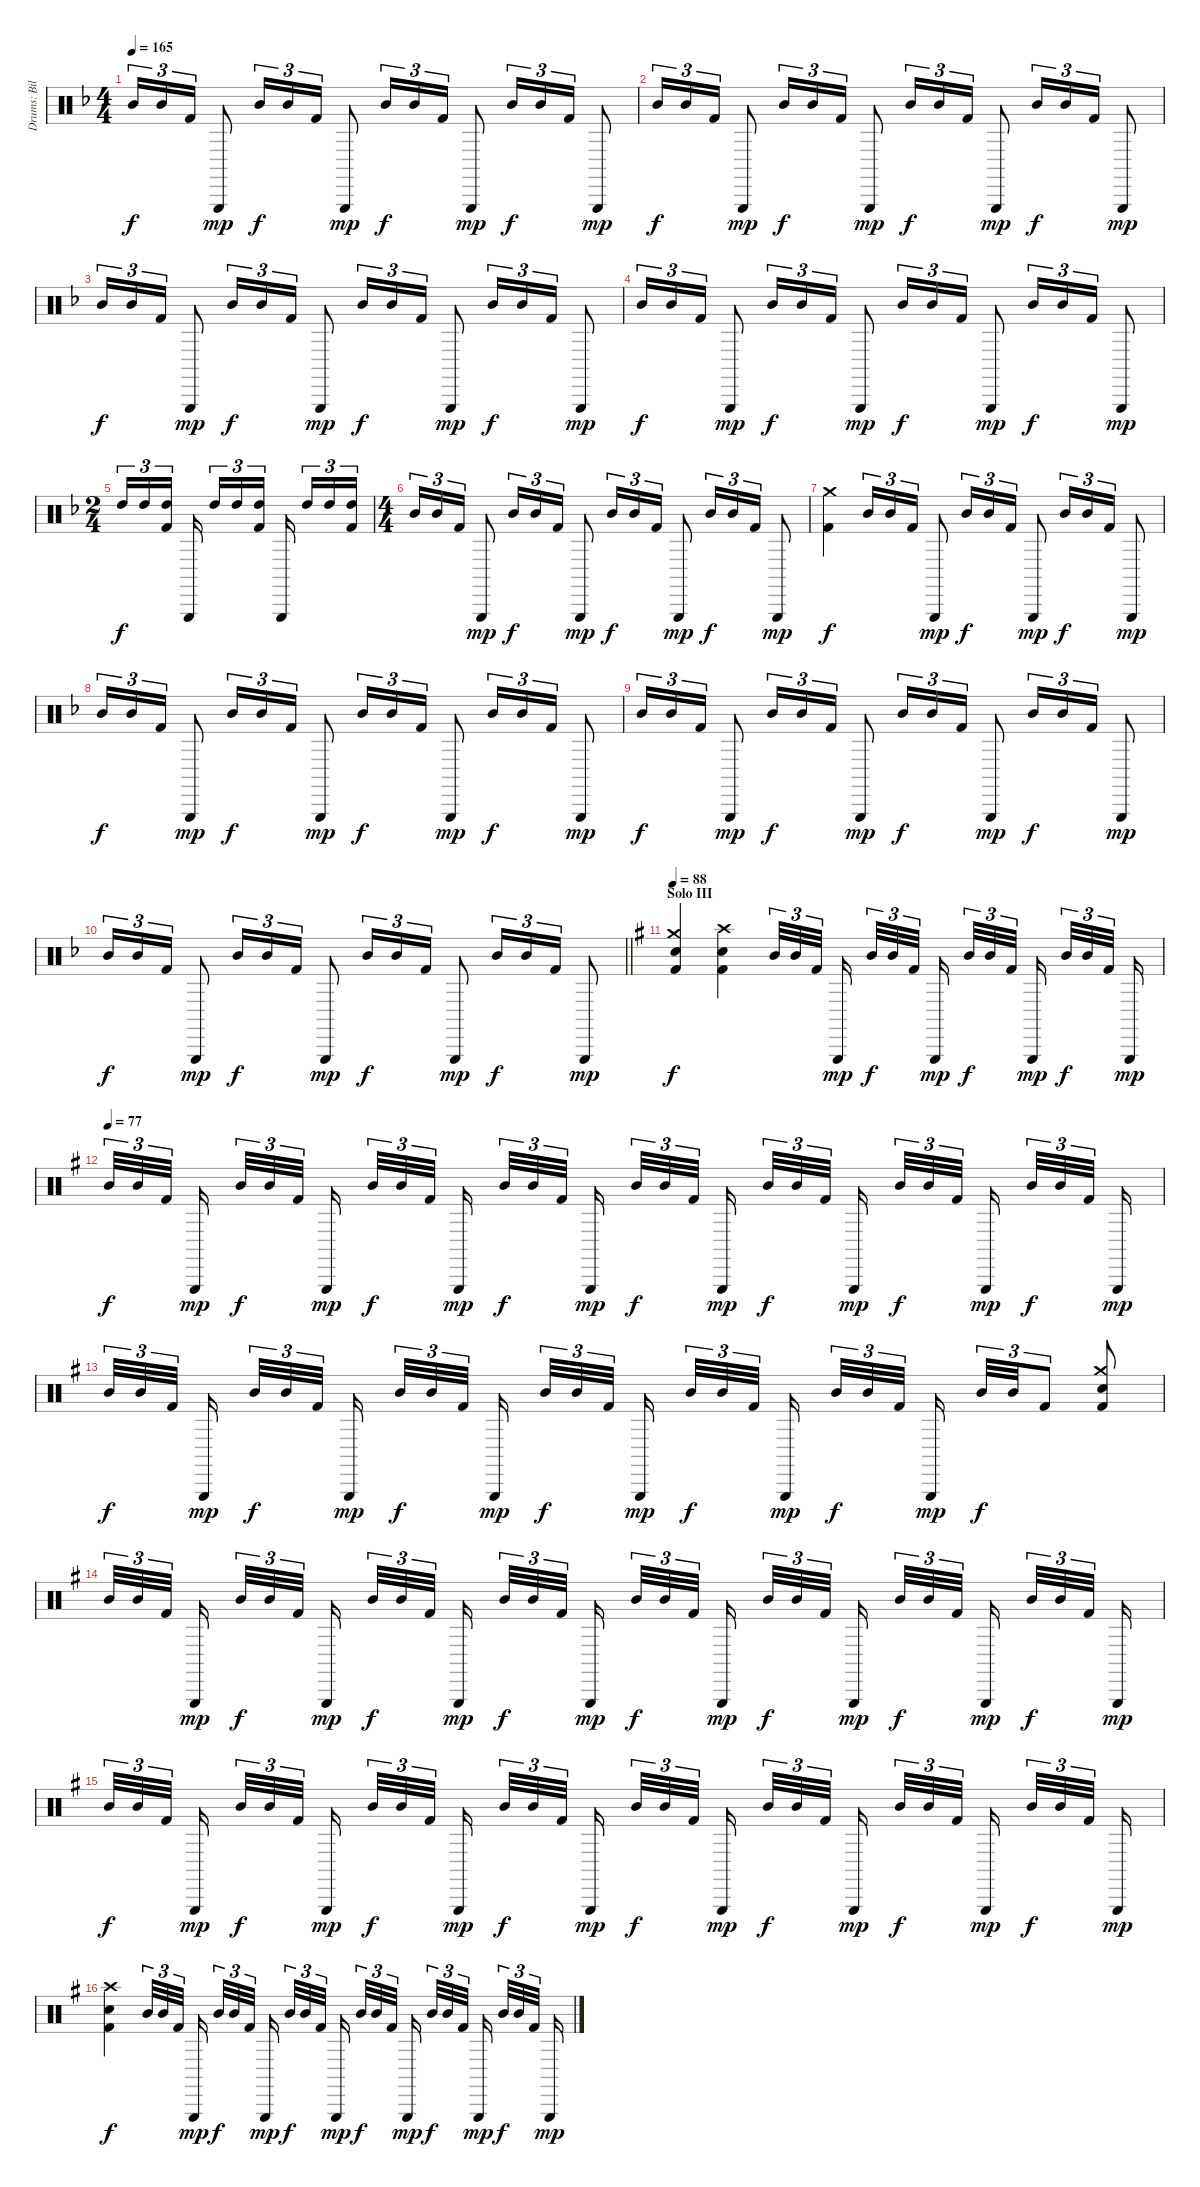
\track ("Drums: Bill" "Drums: Bil") {instrument percussion}
\staff {score}
\articulation defaults
\ts (4 4)
\tempo 165
\clef neutral
\ks f "Mid Tom (hit)".16{tu (3 2) dy f} "Mid Tom (hit)".16{tu (3 2)} "Kick (hit) 2".16{tu (3 2)} "Triangle (hit)".8{dy mp} "Mid Tom (hit)".16{tu (3 2) dy f} "Mid Tom (hit)".16{tu (3 2)} "Kick (hit) 2".16{tu (3 2)} "Triangle (hit)".8{dy mp} "Mid Tom (hit)".16{tu (3 2) dy f} "Mid Tom (hit)".16{tu (3 2)} "Kick (hit) 2".16{tu (3 2)} "Triangle (hit)".8{dy mp} "Mid Tom (hit)".16{tu (3 2) dy f} "Mid Tom (hit)".16{tu (3 2)} "Kick (hit) 2".16{tu (3 2)} "Triangle (hit)".8{dy mp}
|
"Mid Tom (hit)".16{tu (3 2) dy f} "Mid Tom (hit)".16{tu (3 2)} "Kick (hit) 2".16{tu (3 2)} "Triangle (hit)".8{dy mp} "Mid Tom (hit)".16{tu (3 2) dy f} "Mid Tom (hit)".16{tu (3 2)} "Kick (hit) 2".16{tu (3 2)} "Triangle (hit)".8{dy mp} "Mid Tom (hit)".16{tu (3 2) dy f} "Mid Tom (hit)".16{tu (3 2)} "Kick (hit) 2".16{tu (3 2)} "Triangle (hit)".8{dy mp} "Mid Tom (hit)".16{tu (3 2) dy f} "Mid Tom (hit)".16{tu (3 2)} "Kick (hit) 2".16{tu (3 2)} "Triangle (hit)".8{dy mp} |
"Mid Tom (hit)".16{tu (3 2) dy f} "Mid Tom (hit)".16{tu (3 2)} "Kick (hit) 2".16{tu (3 2)} "Triangle (hit)".8{dy mp} "Mid Tom (hit)".16{tu (3 2) dy f} "Mid Tom (hit)".16{tu (3 2)} "Kick (hit) 2".16{tu (3 2)} "Triangle (hit)".8{dy mp} "Mid Tom (hit)".16{tu (3 2) dy f} "Mid Tom (hit)".16{tu (3 2)} "Kick (hit) 2".16{tu (3 2)} "Triangle (hit)".8{dy mp} "Mid Tom (hit)".16{tu (3 2) dy f} "Mid Tom (hit)".16{tu (3 2)} "Kick (hit) 2".16{tu (3 2)} "Triangle (hit)".8{dy mp} |
"Mid Tom (hit)".16{tu (3 2) dy f} "Mid Tom (hit)".16{tu (3 2)} "Kick (hit) 2".16{tu (3 2)} "Triangle (hit)".8{dy mp} "Mid Tom (hit)".16{tu (3 2) dy f} "Mid Tom (hit)".16{tu (3 2)} "Kick (hit) 2".16{tu (3 2)} "Triangle (hit)".8{dy mp} "Mid Tom (hit)".16{tu (3 2) dy f} "Mid Tom (hit)".16{tu (3 2)} "Kick (hit) 2".16{tu (3 2)} "Triangle (hit)".8{dy mp} "Mid Tom (hit)".16{tu (3 2) dy f} "Mid Tom (hit)".16{tu (3 2)} "Kick (hit) 2".16{tu (3 2)} "Triangle (hit)".8{dy mp} |
\ts (2 4)
"High Tom (hit)".16{tu (3 2) dy f} "High Tom (hit)".16{tu (3 2)} ("High Tom (hit)" "Kick (hit) 2").16{tu (3 2) beam splitsecondary} "Triangle (hit)".16{beam splitsecondary} "High Tom (hit)".16{tu (3 2)} "High Tom (hit)".16{tu (3 2)} ("High Tom (hit)" "Kick (hit) 2").16{tu (3 2) beam splitsecondary} "Triangle (hit)".16{beam splitsecondary} "High Tom (hit)".16{tu (3 2)} "High Tom (hit)".16{tu (3 2)} ("High Tom (hit)" "Kick (hit) 2").16{tu (3 2)} |
\ts (4 4)
"Mid Tom (hit)".16{tu (3 2)} "Mid Tom (hit)".16{tu (3 2)} "Kick (hit) 2".16{tu (3 2)} "Triangle (hit)".8{dy mp} "Mid Tom (hit)".16{tu (3 2) dy f} "Mid Tom (hit)".16{tu (3 2)} "Kick (hit) 2".16{tu (3 2)} "Triangle (hit)".8{dy mp} "Mid Tom (hit)".16{tu (3 2) dy f} "Mid Tom (hit)".16{tu (3 2)} "Kick (hit) 2".16{tu (3 2)} "Triangle (hit)".8{dy mp} "Mid Tom (hit)".16{tu (3 2) dy f} "Mid Tom (hit)".16{tu (3 2)} "Kick (hit) 2".16{tu (3 2)} "Triangle (hit)".8{dy mp} |
("Crash medium (hit)" "Kick (hit) 2").4{dy f} "Mid Tom (hit)".16{tu (3 2)} "Mid Tom (hit)".16{tu (3 2)} "Kick (hit) 2".16{tu (3 2)} "Triangle (hit)".8{dy mp} "Mid Tom (hit)".16{tu (3 2) dy f} "Mid Tom (hit)".16{tu (3 2)} "Kick (hit) 2".16{tu (3 2)} "Triangle (hit)".8{dy mp} "Mid Tom (hit)".16{tu (3 2) dy f} "Mid Tom (hit)".16{tu (3 2)} "Kick (hit) 2".16{tu (3 2)} "Triangle (hit)".8{dy mp} |
"Mid Tom (hit)".16{tu (3 2) dy f} "Mid Tom (hit)".16{tu (3 2)} "Kick (hit) 2".16{tu (3 2)} "Triangle (hit)".8{dy mp} "Mid Tom (hit)".16{tu (3 2) dy f} "Mid Tom (hit)".16{tu (3 2)} "Kick (hit) 2".16{tu (3 2)} "Triangle (hit)".8{dy mp} "Mid Tom (hit)".16{tu (3 2) dy f} "Mid Tom (hit)".16{tu (3 2)} "Kick (hit) 2".16{tu (3 2)} "Triangle (hit)".8{dy mp} "Mid Tom (hit)".16{tu (3 2) dy f} "Mid Tom (hit)".16{tu (3 2)} "Kick (hit) 2".16{tu (3 2)} "Triangle (hit)".8{dy mp} |
"Mid Tom (hit)".16{tu (3 2) dy f} "Mid Tom (hit)".16{tu (3 2)} "Kick (hit) 2".16{tu (3 2)} "Triangle (hit)".8{dy mp} "Mid Tom (hit)".16{tu (3 2) dy f} "Mid Tom (hit)".16{tu (3 2)} "Kick (hit) 2".16{tu (3 2)} "Triangle (hit)".8{dy mp} "Mid Tom (hit)".16{tu (3 2) dy f} "Mid Tom (hit)".16{tu (3 2)} "Kick (hit) 2".16{tu (3 2)} "Triangle (hit)".8{dy mp} "Mid Tom (hit)".16{tu (3 2) dy f} "Mid Tom (hit)".16{tu (3 2)} "Kick (hit) 2".16{tu (3 2)} "Triangle (hit)".8{dy mp} |
\barLineRight lightlight "Mid Tom (hit)".16{tu (3 2) dy f} "Mid Tom (hit)".16{tu (3 2)} "Kick (hit) 2".16{tu (3 2)} "Triangle (hit)".8{dy mp} "Mid Tom (hit)".16{tu (3 2) dy f} "Mid Tom (hit)".16{tu (3 2)} "Kick (hit) 2".16{tu (3 2)} "Triangle (hit)".8{dy mp} "Mid Tom (hit)".16{tu (3 2) dy f} "Mid Tom (hit)".16{tu (3 2)} "Kick (hit) 2".16{tu (3 2)} "Triangle (hit)".8{dy mp} "Mid Tom (hit)".16{tu (3 2) dy f} "Mid Tom (hit)".16{tu (3 2)} "Kick (hit) 2".16{tu (3 2)} "Triangle (hit)".8{dy mp}
|
\section ("" "Solo III")
\tempo 88
\ks g
("Crash medium (hit)" "Snare (hit) 2" "Kick (hit) 2").4{dy f} ("Crash high (hit)" "Snare (hit) 2" "Kick (hit) 2").4 "Mid Tom (hit)".32{tu (3 2)} "Mid Tom (hit)".32{tu (3 2)} "Kick (hit) 2".32{tu (3 2) beam splitsecondary} "Triangle (hit)".16{dy mp beam splitsecondary} "Mid Tom (hit)".32{tu (3 2) dy f} "Mid Tom (hit)".32{tu (3 2)} "Kick (hit) 2".32{tu (3 2) beam splitsecondary} "Triangle (hit)".16{dy mp} "Mid Tom (hit)".32{tu (3 2) dy f} "Mid Tom (hit)".32{tu (3 2)} "Kick (hit) 2".32{tu (3 2) beam splitsecondary} "Triangle (hit)".16{dy mp beam splitsecondary} "Mid Tom (hit)".32{tu (3 2) dy f} "Mid Tom (hit)".32{tu (3 2)} "Kick (hit) 2".32{tu (3 2) beam splitsecondary} "Triangle (hit)".16{dy mp} |
\tempo (77)
"Mid Tom (hit)".32{tu (3 2) dy f} "Mid Tom (hit)".32{tu (3 2)} "Kick (hit) 2".32{tu (3 2) beam splitsecondary} "Triangle (hit)".16{dy mp beam splitsecondary} "Mid Tom (hit)".32{tu (3 2) dy f} "Mid Tom (hit)".32{tu (3 2)} "Kick (hit) 2".32{tu (3 2) beam splitsecondary} "Triangle (hit)".16{dy mp} "Mid Tom (hit)".32{tu (3 2) dy f} "Mid Tom (hit)".32{tu (3 2)} "Kick (hit) 2".32{tu (3 2) beam splitsecondary} "Triangle (hit)".16{dy mp beam splitsecondary} "Mid Tom (hit)".32{tu (3 2) dy f} "Mid Tom (hit)".32{tu (3 2)} "Kick (hit) 2".32{tu (3 2) beam splitsecondary} "Triangle (hit)".16{dy mp} "Mid Tom (hit)".32{tu (3 2) dy f} "Mid Tom (hit)".32{tu (3 2)} "Kick (hit) 2".32{tu (3 2) beam splitsecondary} "Triangle (hit)".16{dy mp beam splitsecondary} "Mid Tom (hit)".32{tu (3 2) dy f} "Mid Tom (hit)".32{tu (3 2)} "Kick (hit) 2".32{tu (3 2) beam splitsecondary} "Triangle (hit)".16{dy mp} "Mid Tom (hit)".32{tu (3 2) dy f} "Mid Tom (hit)".32{tu (3 2)} "Kick (hit) 2".32{tu (3 2) beam splitsecondary} "Triangle (hit)".16{dy mp beam splitsecondary} "Mid Tom (hit)".32{tu (3 2) dy f} "Mid Tom (hit)".32{tu (3 2)} "Kick (hit) 2".32{tu (3 2) beam splitsecondary} "Triangle (hit)".16{dy mp} |
"Mid Tom (hit)".32{tu (3 2) dy f} "Mid Tom (hit)".32{tu (3 2)} "Kick (hit) 2".32{tu (3 2) beam splitsecondary} "Triangle (hit)".16{dy mp beam splitsecondary} "Mid Tom (hit)".32{tu (3 2) dy f} "Mid Tom (hit)".32{tu (3 2)} "Kick (hit) 2".32{tu (3 2) beam splitsecondary} "Triangle (hit)".16{dy mp} "Mid Tom (hit)".32{tu (3 2) dy f} "Mid Tom (hit)".32{tu (3 2)} "Kick (hit) 2".32{tu (3 2) beam splitsecondary} "Triangle (hit)".16{dy mp beam splitsecondary} "Mid Tom (hit)".32{tu (3 2) dy f} "Mid Tom (hit)".32{tu (3 2)} "Kick (hit) 2".32{tu (3 2) beam splitsecondary} "Triangle (hit)".16{dy mp} "Mid Tom (hit)".32{tu (3 2) dy f} "Mid Tom (hit)".32{tu (3 2)} "Kick (hit) 2".32{tu (3 2) beam splitsecondary} "Triangle (hit)".16{dy mp beam splitsecondary} "Mid Tom (hit)".32{tu (3 2) dy f} "Mid Tom (hit)".32{tu (3 2)} "Kick (hit) 2".32{tu (3 2) beam splitsecondary} "Triangle (hit)".16{dy mp} "Mid Tom (hit)".32{tu (3 2) dy f} "Mid Tom (hit)".32{tu (3 2)} "Kick (hit) 2".8{tu (3 2)} ("Crash medium (hit)" "Snare (hit) 2" "Kick (hit) 2").8 |
"Mid Tom (hit)".32{tu (3 2)} "Mid Tom (hit)".32{tu (3 2)} "Kick (hit) 2".32{tu (3 2) beam splitsecondary} "Triangle (hit)".16{dy mp beam splitsecondary} "Mid Tom (hit)".32{tu (3 2) dy f} "Mid Tom (hit)".32{tu (3 2)} "Kick (hit) 2".32{tu (3 2) beam splitsecondary} "Triangle (hit)".16{dy mp} "Mid Tom (hit)".32{tu (3 2) dy f} "Mid Tom (hit)".32{tu (3 2)} "Kick (hit) 2".32{tu (3 2) beam splitsecondary} "Triangle (hit)".16{dy mp beam splitsecondary} "Mid Tom (hit)".32{tu (3 2) dy f} "Mid Tom (hit)".32{tu (3 2)} "Kick (hit) 2".32{tu (3 2) beam splitsecondary} "Triangle (hit)".16{dy mp} "Mid Tom (hit)".32{tu (3 2) dy f} "Mid Tom (hit)".32{tu (3 2)} "Kick (hit) 2".32{tu (3 2) beam splitsecondary} "Triangle (hit)".16{dy mp beam splitsecondary} "Mid Tom (hit)".32{tu (3 2) dy f} "Mid Tom (hit)".32{tu (3 2)} "Kick (hit) 2".32{tu (3 2) beam splitsecondary} "Triangle (hit)".16{dy mp} "Mid Tom (hit)".32{tu (3 2) dy f} "Mid Tom (hit)".32{tu (3 2)} "Kick (hit) 2".32{tu (3 2) beam splitsecondary} "Triangle (hit)".16{dy mp beam splitsecondary} "Mid Tom (hit)".32{tu (3 2) dy f} "Mid Tom (hit)".32{tu (3 2)} "Kick (hit) 2".32{tu (3 2) beam splitsecondary} "Triangle (hit)".16{dy mp} |
"Mid Tom (hit)".32{tu (3 2) dy f} "Mid Tom (hit)".32{tu (3 2)} "Kick (hit) 2".32{tu (3 2) beam splitsecondary} "Triangle (hit)".16{dy mp beam splitsecondary} "Mid Tom (hit)".32{tu (3 2) dy f} "Mid Tom (hit)".32{tu (3 2)} "Kick (hit) 2".32{tu (3 2) beam splitsecondary} "Triangle (hit)".16{dy mp} "Mid Tom (hit)".32{tu (3 2) dy f} "Mid Tom (hit)".32{tu (3 2)} "Kick (hit) 2".32{tu (3 2) beam splitsecondary} "Triangle (hit)".16{dy mp beam splitsecondary} "Mid Tom (hit)".32{tu (3 2) dy f} "Mid Tom (hit)".32{tu (3 2)} "Kick (hit) 2".32{tu (3 2) beam splitsecondary} "Triangle (hit)".16{dy mp} "Mid Tom (hit)".32{tu (3 2) dy f} "Mid Tom (hit)".32{tu (3 2)} "Kick (hit) 2".32{tu (3 2) beam splitsecondary} "Triangle (hit)".16{dy mp beam splitsecondary} "Mid Tom (hit)".32{tu (3 2) dy f} "Mid Tom (hit)".32{tu (3 2)} "Kick (hit) 2".32{tu (3 2) beam splitsecondary} "Triangle (hit)".16{dy mp} "Mid Tom (hit)".32{tu (3 2) dy f} "Mid Tom (hit)".32{tu (3 2)} "Kick (hit) 2".32{tu (3 2) beam splitsecondary} "Triangle (hit)".16{dy mp beam splitsecondary} "Mid Tom (hit)".32{tu (3 2) dy f} "Mid Tom (hit)".32{tu (3 2)} "Kick (hit) 2".32{tu (3 2) beam splitsecondary} "Triangle (hit)".16{dy mp} |
("Crash high (hit)" "Snare (hit) 2" "Kick (hit) 2").4{dy f} "Mid Tom (hit)".32{tu (3 2)} "Mid Tom (hit)".32{tu (3 2)} "Kick (hit) 2".32{tu (3 2) beam splitsecondary} "Triangle (hit)".16{dy mp beam splitsecondary} "Mid Tom (hit)".32{tu (3 2) dy f} "Mid Tom (hit)".32{tu (3 2)} "Kick (hit) 2".32{tu (3 2) beam splitsecondary} "Triangle (hit)".16{dy mp} "Mid Tom (hit)".32{tu (3 2) dy f} "Mid Tom (hit)".32{tu (3 2)} "Kick (hit) 2".32{tu (3 2) beam splitsecondary} "Triangle (hit)".16{dy mp beam splitsecondary} "Mid Tom (hit)".32{tu (3 2) dy f} "Mid Tom (hit)".32{tu (3 2)} "Kick (hit) 2".32{tu (3 2) beam splitsecondary} "Triangle (hit)".16{dy mp} "Mid Tom (hit)".32{tu (3 2) dy f} "Mid Tom (hit)".32{tu (3 2)} "Kick (hit) 2".32{tu (3 2) beam splitsecondary} "Triangle (hit)".16{dy mp beam splitsecondary} "Mid Tom (hit)".32{tu (3 2) dy f} "Mid Tom (hit)".32{tu (3 2)} "Kick (hit) 2".32{tu (3 2) beam splitsecondary} "Triangle (hit)".16{dy mp}
